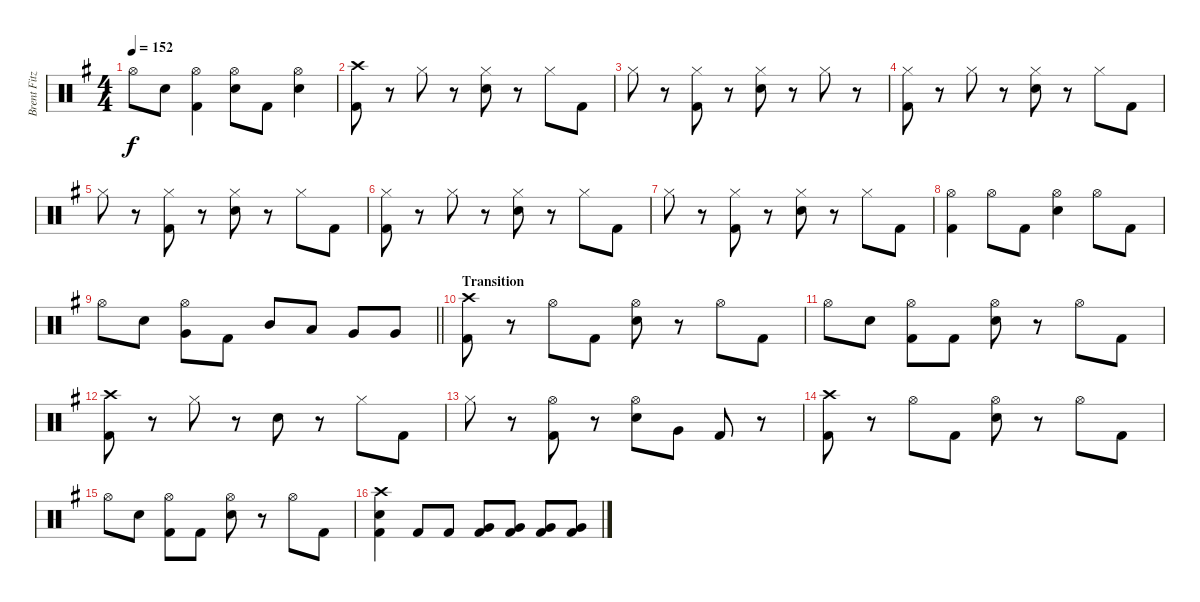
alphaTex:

\track ("Brent Fitz" "Brent Fitz") {instrument percussion}
\staff {score}
\articulation defaults
\ts (4 4)
\tempo 152
\clef neutral
\ks eminor "Hi-Hat (open)".8{dy f} "Snare (hit) 2".8
("Hi-Hat (open)" "Kick (hit) 2").4 ("Hi-Hat (open)" "Snare (hit) 2").8 "Kick (hit) 2".8 ("Hi-Hat (open)" "Snare (hit) 2").4 |
("Crash high (hit)" "Kick (hit) 2").8 r.8 "Hi-Hat (closed)".8 r.8 ("Hi-Hat (closed)" "Snare (hit) 2").8 r.8 "Hi-Hat (closed)".8 "Kick (hit) 2".8 |
"Hi-Hat (closed)".8 r.8 ("Hi-Hat (closed)" "Kick (hit) 2").8 r.8 ("Hi-Hat (closed)" "Snare (hit) 2").8 r.8 "Hi-Hat (closed)".8 r.8 |
("Hi-Hat (closed)" "Kick (hit) 2").8 r.8 "Hi-Hat (closed)".8 r.8 ("Hi-Hat (closed)" "Snare (hit) 2").8 r.8 "Hi-Hat (closed)".8 "Kick (hit) 2".8 |
"Hi-Hat (closed)".8 r.8 ("Hi-Hat (closed)" "Kick (hit) 2").8 r.8 ("Hi-Hat (closed)" "Snare (hit) 2").8 r.8 "Hi-Hat (closed)".8 "Kick (hit) 2".8 |
("Hi-Hat (closed)" "Kick (hit) 2").8 r.8 "Hi-Hat (closed)".8 r.8 ("Hi-Hat (closed)" "Snare (hit) 2").8 r.8 "Hi-Hat (closed)".8 "Kick (hit) 2".8 |
"Hi-Hat (closed)".8 r.8 ("Hi-Hat (closed)" "Kick (hit) 2").8 r.8 ("Hi-Hat (closed)" "Snare (hit) 2").8 r.8 "Hi-Hat (closed)".8 "Kick (hit) 2".8 |
("Hi-Hat (open)" "Kick (hit) 2").4 "Hi-Hat (open)".8 "Kick (hit) 2".8 ("Hi-Hat (open)" "Snare (hit) 2").4 "Hi-Hat (open)".8 "Kick (hit) 2".8 |
\barLineRight lightlight "Hi-Hat (open)".8 "Snare (hit) 2".8
("Hi-Hat (open)" "Very Low Tom (hit)").8 "Kick (hit) 2".8 "Mid Tom (hit)".8 "Low Tom (hit)".8 "Very Low Tom (hit)".8 "Very Low Tom (hit)".8 |
\section ("" "Transition")
("Crash high (hit)" "Kick (hit) 2").8 r.8 "Hi-Hat (open)".8 "Kick (hit) 2".8 ("Hi-Hat (open)" "Snare (hit) 2").8 r.8 "Hi-Hat (open)".8 "Kick (hit) 2".8 |
"Hi-Hat (open)".8 "Snare (hit) 2".8 ("Hi-Hat (open)" "Kick (hit) 2").8 "Kick (hit) 2".8 ("Hi-Hat (open)" "Snare (hit) 2").8 r.8 "Hi-Hat (open)".8 "Kick (hit) 2".8 |
("Crash high (hit)" "Kick (hit) 2").8 r.8 "Hi-Hat (closed)".8 r.8 "Snare (hit) 2".8 r.8 "Hi-Hat (closed)".8 "Kick (hit) 2".8 |
"Hi-Hat (closed)".8 r.8 ("Hi-Hat (open)" "Kick (hit) 2").8 r.8 ("Hi-Hat (open)" "Snare (hit) 2").8 "Very Low Tom (hit)".8 "Kick (hit) 2".8 r.8 |
("Crash high (hit)" "Kick (hit) 2").8 r.8 "Hi-Hat (open)".8 "Kick (hit) 2".8 ("Hi-Hat (open)" "Snare (hit) 2").8 r.8 "Hi-Hat (open)".8 "Kick (hit) 2".8 |
"Hi-Hat (open)".8 "Snare (hit) 2".8 ("Hi-Hat (open)" "Kick (hit) 2").8 "Kick (hit) 2".8 ("Hi-Hat (open)" "Snare (hit) 2").8 r.8 "Hi-Hat (open)".8 "Kick (hit) 2".8 |
("Crash high (hit)" "Snare (hit) 2" "Kick (hit) 2").4 "Kick (hit) 2".8 "Kick (hit) 2".8 ("Very Low Tom (hit)" "Kick (hit) 2").8 ("Very Low Tom (hit)" "Kick (hit) 2").8 ("Very Low Tom (hit)" "Kick (hit) 2").8 ("Very Low Tom (hit)" "Kick (hit) 2").8
